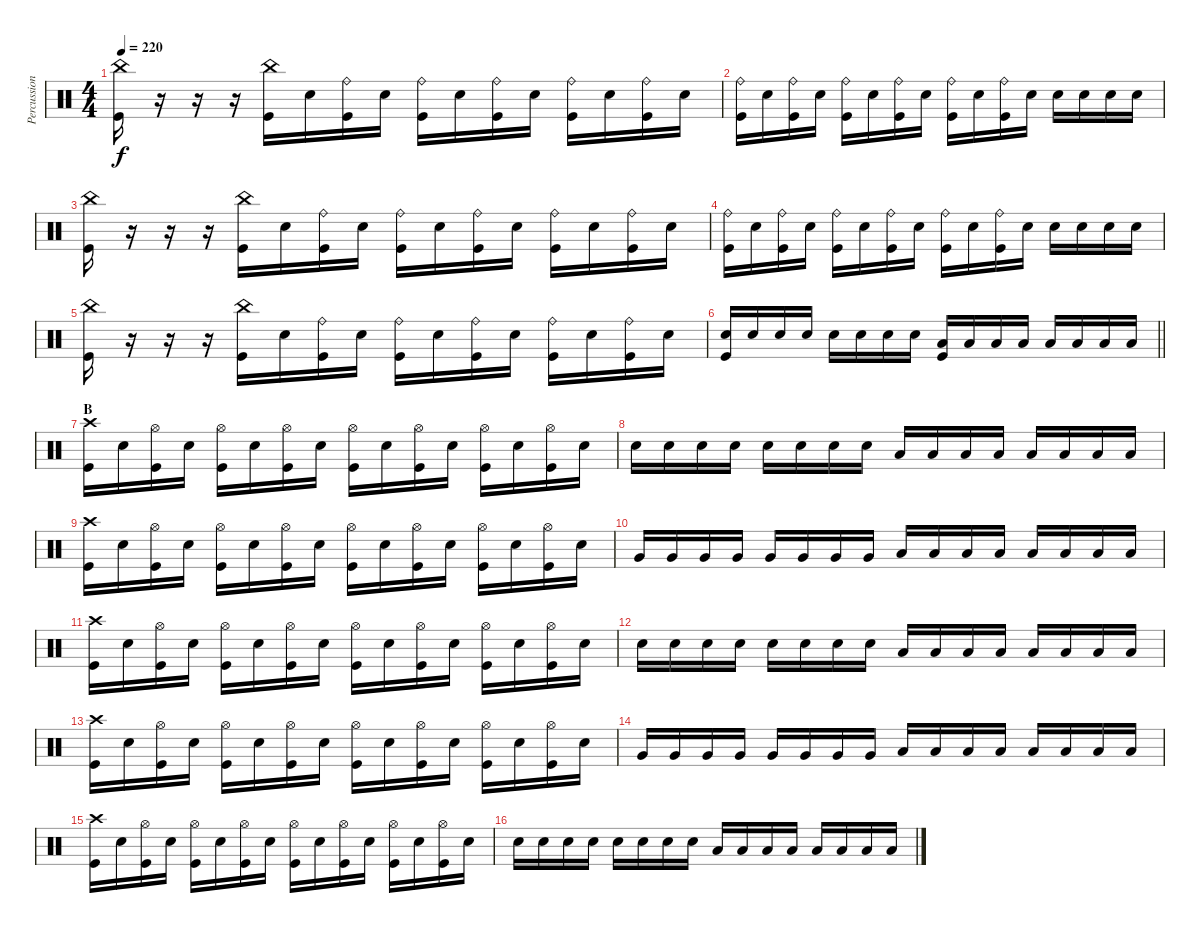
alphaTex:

\track ("Percussion" "Percussion") {instrument percussion}
\staff {score}
\articulation defaults
\ts (4 4)
\tempo 220
\clef neutral
\ks c
("China (hit)" "Kick (hit)").16{dy f} r.16 r.16 r.16 ("China (hit)" "Kick (hit)").16 "Snare (hit) 2".16 ("Ride (bell)" "Kick (hit)").16 "Snare (hit) 2".16 ("Ride (bell)" "Kick (hit)").16 "Snare (hit) 2".16 ("Ride (bell)" "Kick (hit)").16 "Snare (hit) 2".16 ("Ride (bell)" "Kick (hit)").16 "Snare (hit) 2".16 ("Ride (bell)" "Kick (hit)").16 "Snare (hit) 2".16 |
("Ride (bell)" "Kick (hit)").16 "Snare (hit) 2".16 ("Ride (bell)" "Kick (hit)").16 "Snare (hit) 2".16 ("Ride (bell)" "Kick (hit)").16 "Snare (hit) 2".16 ("Ride (bell)" "Kick (hit)").16 "Snare (hit) 2".16 ("Ride (bell)" "Kick (hit)").16 "Snare (hit) 2".16 ("Ride (bell)" "Kick (hit)").16 "Snare (hit) 2".16 "Snare (hit) 2".16 "Snare (hit) 2".16 "Snare (hit) 2".16 "Snare (hit) 2".16 |
("China (hit)" "Kick (hit)").16 r.16 r.16 r.16 ("China (hit)" "Kick (hit)").16 "Snare (hit) 2".16 ("Ride (bell)" "Kick (hit)").16 "Snare (hit) 2".16 ("Ride (bell)" "Kick (hit)").16 "Snare (hit) 2".16 ("Ride (bell)" "Kick (hit)").16 "Snare (hit) 2".16 ("Ride (bell)" "Kick (hit)").16 "Snare (hit) 2".16 ("Ride (bell)" "Kick (hit)").16 "Snare (hit) 2".16 |
("Ride (bell)" "Kick (hit)").16 "Snare (hit) 2".16 ("Ride (bell)" "Kick (hit)").16 "Snare (hit) 2".16 ("Ride (bell)" "Kick (hit)").16 "Snare (hit) 2".16 ("Ride (bell)" "Kick (hit)").16 "Snare (hit) 2".16 ("Ride (bell)" "Kick (hit)").16 "Snare (hit) 2".16 ("Ride (bell)" "Kick (hit)").16 "Snare (hit) 2".16 "Snare (hit) 2".16 "Snare (hit) 2".16 "Snare (hit) 2".16 "Snare (hit) 2".16 |
("China (hit)" "Kick (hit)").16 r.16 r.16 r.16 ("China (hit)" "Kick (hit)").16 "Snare (hit) 2".16 ("Ride (bell)" "Kick (hit)").16 "Snare (hit) 2".16 ("Ride (bell)" "Kick (hit)").16 "Snare (hit) 2".16 ("Ride (bell)" "Kick (hit)").16 "Snare (hit) 2".16 ("Ride (bell)" "Kick (hit)").16 "Snare (hit) 2".16 ("Ride (bell)" "Kick (hit)").16 "Snare (hit) 2".16 |
\barLineRight lightlight
("Snare (hit) 2" "Kick (hit)").16 "Snare (hit) 2".16 "Snare (hit) 2".16 "Snare (hit) 2".16 "Snare (hit) 2".16 "Snare (hit) 2".16 "Snare (hit) 2".16 "Snare (hit) 2".16 ("Low Tom (hit)" "Kick (hit)").16 "Low Tom (hit)".16 "Low Tom (hit)".16 "Low Tom (hit)".16 "Low Tom (hit)".16 "Low Tom (hit)".16 "Low Tom (hit)".16 "Low Tom (hit)".16 |
\section ("" "B")
("Crash high (hit)" "Kick (hit)").16 "Snare (hit) 2".16 ("Hi-Hat (open)" "Kick (hit)").16 "Snare (hit) 2".16 ("Hi-Hat (open)" "Kick (hit)").16 "Snare (hit) 2".16 ("Hi-Hat (open)" "Kick (hit)").16 "Snare (hit) 2".16 ("Hi-Hat (open)" "Kick (hit)").16 "Snare (hit) 2".16 ("Hi-Hat (open)" "Kick (hit)").16 "Snare (hit) 2".16 ("Hi-Hat (open)" "Kick (hit)").16 "Snare (hit) 2".16 ("Hi-Hat (open)" "Kick (hit)").16 "Snare (hit) 2".16 |
"Snare (hit) 2".16 "Snare (hit) 2".16 "Snare (hit) 2".16 "Snare (hit) 2".16 "Snare (hit) 2".16 "Snare (hit) 2".16 "Snare (hit) 2".16 "Snare (hit) 2".16 "Low Tom (hit)".16 "Low Tom (hit)".16 "Low Tom (hit)".16 "Low Tom (hit)".16 "Low Tom (hit)".16 "Low Tom (hit)".16 "Low Tom (hit)".16 "Low Tom (hit)".16 |
("Crash high (hit)" "Kick (hit)").16 "Snare (hit) 2".16 ("Hi-Hat (open)" "Kick (hit)").16 "Snare (hit) 2".16 ("Hi-Hat (open)" "Kick (hit)").16 "Snare (hit) 2".16 ("Hi-Hat (open)" "Kick (hit)").16 "Snare (hit) 2".16 ("Hi-Hat (open)" "Kick (hit)").16 "Snare (hit) 2".16 ("Hi-Hat (open)" "Kick (hit)").16 "Snare (hit) 2".16 ("Hi-Hat (open)" "Kick (hit)").16 "Snare (hit) 2".16 ("Hi-Hat (open)" "Kick (hit)").16 "Snare (hit) 2".16 |
"Very Low Tom (hit)".16 "Very Low Tom (hit)".16 "Very Low Tom (hit)".16 "Very Low Tom (hit)".16 "Very Low Tom (hit)".16 "Very Low Tom (hit)".16 "Very Low Tom (hit)".16 "Very Low Tom (hit)".16 "Low Floor Tom (hit)".16 "Low Floor Tom (hit)".16 "Low Floor Tom (hit)".16 "Low Floor Tom (hit)".16 "Low Floor Tom (hit)".16 "Low Floor Tom (hit)".16 "Low Floor Tom (hit)".16 "Low Floor Tom (hit)".16 |
("Crash high (hit)" "Kick (hit)").16 "Snare (hit) 2".16 ("Hi-Hat (open)" "Kick (hit)").16 "Snare (hit) 2".16 ("Hi-Hat (open)" "Kick (hit)").16 "Snare (hit) 2".16 ("Hi-Hat (open)" "Kick (hit)").16 "Snare (hit) 2".16 ("Hi-Hat (open)" "Kick (hit)").16 "Snare (hit) 2".16 ("Hi-Hat (open)" "Kick (hit)").16 "Snare (hit) 2".16 ("Hi-Hat (open)" "Kick (hit)").16 "Snare (hit) 2".16 ("Hi-Hat (open)" "Kick (hit)").16 "Snare (hit) 2".16 |
"Snare (hit) 2".16 "Snare (hit) 2".16 "Snare (hit) 2".16 "Snare (hit) 2".16 "Snare (hit) 2".16 "Snare (hit) 2".16 "Snare (hit) 2".16 "Snare (hit) 2".16 "Low Tom (hit)".16 "Low Tom (hit)".16 "Low Tom (hit)".16 "Low Tom (hit)".16 "Low Tom (hit)".16 "Low Tom (hit)".16 "Low Tom (hit)".16 "Low Tom (hit)".16 |
("Crash high (hit)" "Kick (hit)").16 "Snare (hit) 2".16 ("Hi-Hat (open)" "Kick (hit)").16 "Snare (hit) 2".16 ("Hi-Hat (open)" "Kick (hit)").16 "Snare (hit) 2".16 ("Hi-Hat (open)" "Kick (hit)").16 "Snare (hit) 2".16 ("Hi-Hat (open)" "Kick (hit)").16 "Snare (hit) 2".16 ("Hi-Hat (open)" "Kick (hit)").16 "Snare (hit) 2".16 ("Hi-Hat (open)" "Kick (hit)").16 "Snare (hit) 2".16 ("Hi-Hat (open)" "Kick (hit)").16 "Snare (hit) 2".16 |
"Very Low Tom (hit)".16 "Very Low Tom (hit)".16 "Very Low Tom (hit)".16 "Very Low Tom (hit)".16 "Very Low Tom (hit)".16 "Very Low Tom (hit)".16 "Very Low Tom (hit)".16 "Very Low Tom (hit)".16 "Low Floor Tom (hit)".16 "Low Floor Tom (hit)".16 "Low Floor Tom (hit)".16 "Low Floor Tom (hit)".16 "Low Floor Tom (hit)".16 "Low Floor Tom (hit)".16 "Low Floor Tom (hit)".16 "Low Floor Tom (hit)".16 |
("Crash high (hit)" "Kick (hit)").16 "Snare (hit) 2".16 ("Hi-Hat (open)" "Kick (hit)").16 "Snare (hit) 2".16 ("Hi-Hat (open)" "Kick (hit)").16 "Snare (hit) 2".16 ("Hi-Hat (open)" "Kick (hit)").16 "Snare (hit) 2".16 ("Hi-Hat (open)" "Kick (hit)").16 "Snare (hit) 2".16 ("Hi-Hat (open)" "Kick (hit)").16 "Snare (hit) 2".16 ("Hi-Hat (open)" "Kick (hit)").16 "Snare (hit) 2".16 ("Hi-Hat (open)" "Kick (hit)").16 "Snare (hit) 2".16 |
"Snare (hit) 2".16 "Snare (hit) 2".16 "Snare (hit) 2".16 "Snare (hit) 2".16 "Snare (hit) 2".16 "Snare (hit) 2".16 "Snare (hit) 2".16 "Snare (hit) 2".16 "Low Tom (hit)".16 "Low Tom (hit)".16 "Low Tom (hit)".16 "Low Tom (hit)".16 "Low Tom (hit)".16 "Low Tom (hit)".16 "Low Tom (hit)".16 "Low Tom (hit)".16
